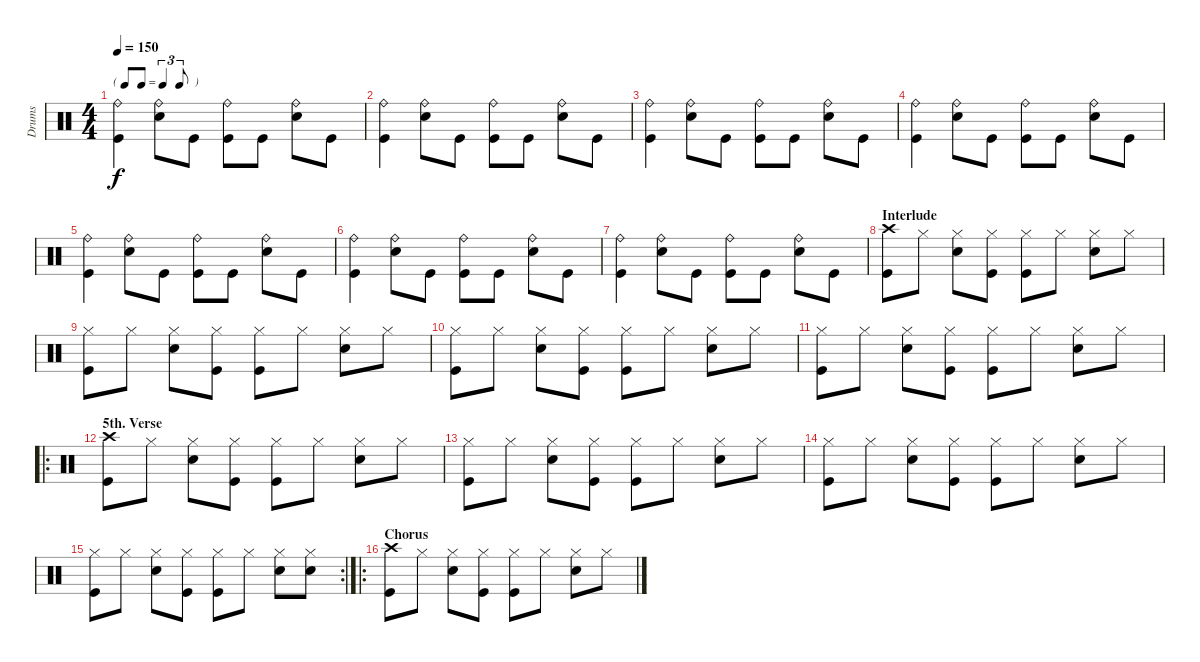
\track ("Drums" "Drums") {instrument percussion}
\staff {score}
\articulation defaults
\ts (4 4)
\tf triplet8th
\tempo 150
\clef neutral
\ks c
("Ride (bell)" "Kick (hit)").4{dy f} ("Ride (bell)" "Snare (hit) 2").8 "Kick (hit)".8 ("Ride (bell)" "Kick (hit)").8 "Kick (hit)".8 ("Ride (bell)" "Snare (hit) 2").8 "Kick (hit)".8 |
("Ride (bell)" "Kick (hit)").4 ("Ride (bell)" "Snare (hit) 2").8 "Kick (hit)".8 ("Ride (bell)" "Kick (hit)").8 "Kick (hit)".8 ("Ride (bell)" "Snare (hit) 2").8 "Kick (hit)".8 |
("Ride (bell)" "Kick (hit)").4 ("Ride (bell)" "Snare (hit) 2").8 "Kick (hit)".8 ("Ride (bell)" "Kick (hit)").8 "Kick (hit)".8 ("Ride (bell)" "Snare (hit) 2").8 "Kick (hit)".8 |
("Ride (bell)" "Kick (hit)").4 ("Ride (bell)" "Snare (hit) 2").8 "Kick (hit)".8 ("Ride (bell)" "Kick (hit)").8 "Kick (hit)".8 ("Ride (bell)" "Snare (hit) 2").8 "Kick (hit)".8 |
("Ride (bell)" "Kick (hit)").4 ("Ride (bell)" "Snare (hit) 2").8 "Kick (hit)".8 ("Ride (bell)" "Kick (hit)").8 "Kick (hit)".8 ("Ride (bell)" "Snare (hit) 2").8 "Kick (hit)".8 |
("Ride (bell)" "Kick (hit)").4 ("Ride (bell)" "Snare (hit) 2").8 "Kick (hit)".8 ("Ride (bell)" "Kick (hit)").8 "Kick (hit)".8 ("Ride (bell)" "Snare (hit) 2").8 "Kick (hit)".8 |
("Ride (bell)" "Kick (hit)").4 ("Ride (bell)" "Snare (hit) 2").8 "Kick (hit)".8 ("Ride (bell)" "Kick (hit)").8 "Kick (hit)".8 ("Ride (bell)" "Snare (hit) 2").8 "Kick (hit)".8 |
\section ("" "Interlude")
("Crash high (hit)" "Kick (hit)").8 "Hi-Hat (closed)".8 ("Hi-Hat (closed)" "Snare (hit) 2").8 ("Hi-Hat (closed)" "Kick (hit)").8 ("Hi-Hat (closed)" "Kick (hit)").8 "Hi-Hat (closed)".8 ("Hi-Hat (closed)" "Snare (hit) 2").8 "Hi-Hat (closed)".8 |
("Hi-Hat (closed)" "Kick (hit)").8 "Hi-Hat (closed)".8 ("Hi-Hat (closed)" "Snare (hit) 2").8 ("Hi-Hat (closed)" "Kick (hit)").8 ("Hi-Hat (closed)" "Kick (hit)").8 "Hi-Hat (closed)".8 ("Hi-Hat (closed)" "Snare (hit) 2").8 "Hi-Hat (closed)".8 |
("Hi-Hat (closed)" "Kick (hit)").8 "Hi-Hat (closed)".8 ("Hi-Hat (closed)" "Snare (hit) 2").8 ("Hi-Hat (closed)" "Kick (hit)").8 ("Hi-Hat (closed)" "Kick (hit)").8 "Hi-Hat (closed)".8 ("Hi-Hat (closed)" "Snare (hit) 2").8 "Hi-Hat (closed)".8 |
("Hi-Hat (closed)" "Kick (hit)").8 "Hi-Hat (closed)".8 ("Hi-Hat (closed)" "Snare (hit) 2").8 ("Hi-Hat (closed)" "Kick (hit)").8 ("Hi-Hat (closed)" "Kick (hit)").8 "Hi-Hat (closed)".8 ("Hi-Hat (closed)" "Snare (hit) 2").8 "Hi-Hat (closed)".8 |
\ro
\section ("" "5th. Verse")
("Crash high (hit)" "Kick (hit)").8 "Hi-Hat (closed)".8 ("Hi-Hat (closed)" "Snare (hit) 2").8 ("Hi-Hat (closed)" "Kick (hit)").8 ("Hi-Hat (closed)" "Kick (hit)").8 "Hi-Hat (closed)".8 ("Hi-Hat (closed)" "Snare (hit) 2").8 "Hi-Hat (closed)".8 |
("Hi-Hat (closed)" "Kick (hit)").8 "Hi-Hat (closed)".8 ("Hi-Hat (closed)" "Snare (hit) 2").8 ("Hi-Hat (closed)" "Kick (hit)").8 ("Hi-Hat (closed)" "Kick (hit)").8 "Hi-Hat (closed)".8 ("Hi-Hat (closed)" "Snare (hit) 2").8 "Hi-Hat (closed)".8 |
("Hi-Hat (closed)" "Kick (hit)").8 "Hi-Hat (closed)".8 ("Hi-Hat (closed)" "Snare (hit) 2").8 ("Hi-Hat (closed)" "Kick (hit)").8 ("Hi-Hat (closed)" "Kick (hit)").8 "Hi-Hat (closed)".8 ("Hi-Hat (closed)" "Snare (hit) 2").8 "Hi-Hat (closed)".8 |
\rc 2
("Hi-Hat (closed)" "Kick (hit)").8 "Hi-Hat (closed)".8 ("Hi-Hat (closed)" "Snare (hit) 2").8 ("Hi-Hat (closed)" "Kick (hit)").8 ("Hi-Hat (closed)" "Kick (hit)").8 "Hi-Hat (closed)".8 ("Hi-Hat (closed)" "Snare (hit) 2").8 ("Hi-Hat (closed)" "Snare (hit) 2").8 |
\ro
\section ("" "Chorus")
("Crash high (hit)" "Kick (hit)").8 "Hi-Hat (closed)".8 ("Hi-Hat (closed)" "Snare (hit) 2").8 ("Hi-Hat (closed)" "Kick (hit)").8 ("Hi-Hat (closed)" "Kick (hit)").8 "Hi-Hat (closed)".8 ("Hi-Hat (closed)" "Snare (hit) 2").8 "Hi-Hat (closed)".8
